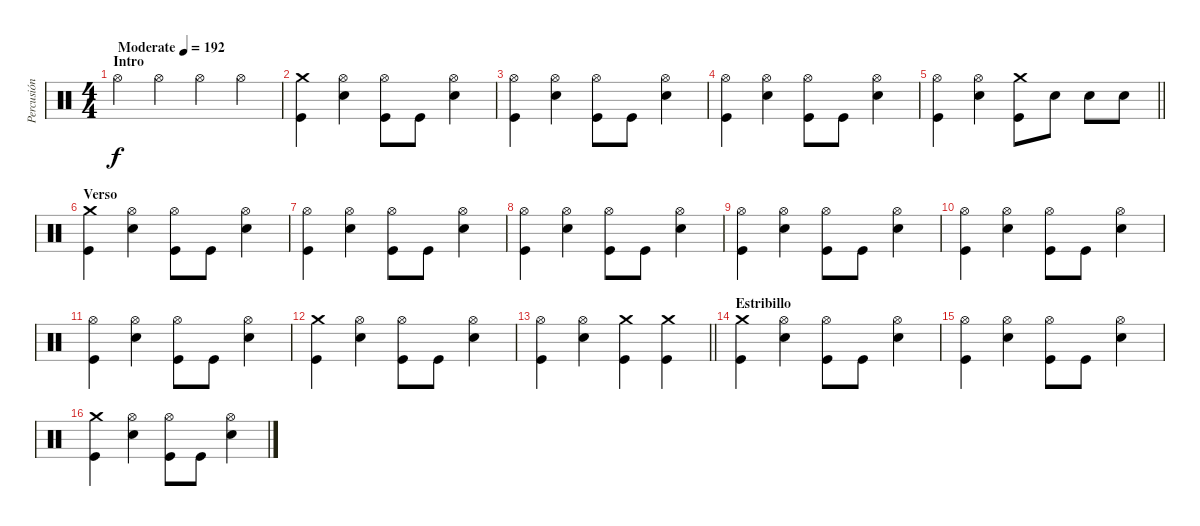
\track ("Percusión" "Percusión") {instrument percussion}
\staff {score}
\articulation defaults
\ts (4 4)
\section ("" "Intro")
\tempo (192 "Moderate")
\clef neutral
\ks c "Hi-Hat (open)".4{dy f} "Hi-Hat (open)".4 "Hi-Hat (open)".4 "Hi-Hat (open)".4
|
("Crash medium (hit)" "Kick (hit)").4 ("Hi-Hat (open)" "Snare (hit) 2").4 ("Hi-Hat (open)" "Kick (hit)").8 "Kick (hit)".8 ("Hi-Hat (open)" "Snare (hit) 2").4 |
("Hi-Hat (open)" "Kick (hit)").4 ("Hi-Hat (open)" "Snare (hit) 2").4 ("Hi-Hat (open)" "Kick (hit)").8 "Kick (hit)".8 ("Hi-Hat (open)" "Snare (hit) 2").4 |
("Hi-Hat (open)" "Kick (hit)").4 ("Hi-Hat (open)" "Snare (hit) 2").4 ("Hi-Hat (open)" "Kick (hit)").8 "Kick (hit)".8 ("Hi-Hat (open)" "Snare (hit) 2").4 |
\barLineRight lightlight
("Hi-Hat (open)" "Kick (hit)").4 ("Hi-Hat (open)" "Snare (hit) 2").4 ("Crash medium (hit)" "Kick (hit)").8 "Snare (hit) 2".8 "Snare (hit) 2".8 "Snare (hit) 2".8 |
\section ("" "Verso")
("Crash medium (hit)" "Kick (hit)").4 ("Hi-Hat (open)" "Snare (hit) 2").4 ("Hi-Hat (open)" "Kick (hit)").8 "Kick (hit)".8 ("Hi-Hat (open)" "Snare (hit) 2").4 |
("Hi-Hat (open)" "Kick (hit)").4 ("Hi-Hat (open)" "Snare (hit) 2").4 ("Hi-Hat (open)" "Kick (hit)").8 "Kick (hit)".8 ("Hi-Hat (open)" "Snare (hit) 2").4 |
("Hi-Hat (open)" "Kick (hit)").4 ("Hi-Hat (open)" "Snare (hit) 2").4 ("Hi-Hat (open)" "Kick (hit)").8 "Kick (hit)".8 ("Hi-Hat (open)" "Snare (hit) 2").4 |
("Hi-Hat (open)" "Kick (hit)").4 ("Hi-Hat (open)" "Snare (hit) 2").4 ("Hi-Hat (open)" "Kick (hit)").8 "Kick (hit)".8 ("Hi-Hat (open)" "Snare (hit) 2").4 |
("Hi-Hat (open)" "Kick (hit)").4 ("Hi-Hat (open)" "Snare (hit) 2").4 ("Hi-Hat (open)" "Kick (hit)").8 "Kick (hit)".8 ("Hi-Hat (open)" "Snare (hit) 2").4 |
("Hi-Hat (open)" "Kick (hit)").4 ("Hi-Hat (open)" "Snare (hit) 2").4 ("Hi-Hat (open)" "Kick (hit)").8 "Kick (hit)".8 ("Hi-Hat (open)" "Snare (hit) 2").4 |
("Crash medium (hit)" "Kick (hit)").4 ("Hi-Hat (open)" "Snare (hit) 2").4 ("Hi-Hat (open)" "Kick (hit)").8 "Kick (hit)".8 ("Hi-Hat (open)" "Snare (hit) 2").4 |
\barLineRight lightlight
("Hi-Hat (open)" "Kick (hit)").4 ("Hi-Hat (open)" "Snare (hit) 2").4 ("Crash medium (hit)" "Kick (hit)").4 ("Crash medium (hit)" "Kick (hit)").4 |
\section ("" "Estribillo")
("Crash medium (hit)" "Kick (hit)").4 ("Hi-Hat (open)" "Snare (hit) 2").4 ("Hi-Hat (open)" "Kick (hit)").8 "Kick (hit)".8 ("Hi-Hat (open)" "Snare (hit) 2").4 |
("Hi-Hat (open)" "Kick (hit)").4 ("Hi-Hat (open)" "Snare (hit) 2").4 ("Hi-Hat (open)" "Kick (hit)").8 "Kick (hit)".8 ("Hi-Hat (open)" "Snare (hit) 2").4 |
("Crash medium (hit)" "Kick (hit)").4 ("Hi-Hat (open)" "Snare (hit) 2").4 ("Hi-Hat (open)" "Kick (hit)").8 "Kick (hit)".8 ("Hi-Hat (open)" "Snare (hit) 2").4
